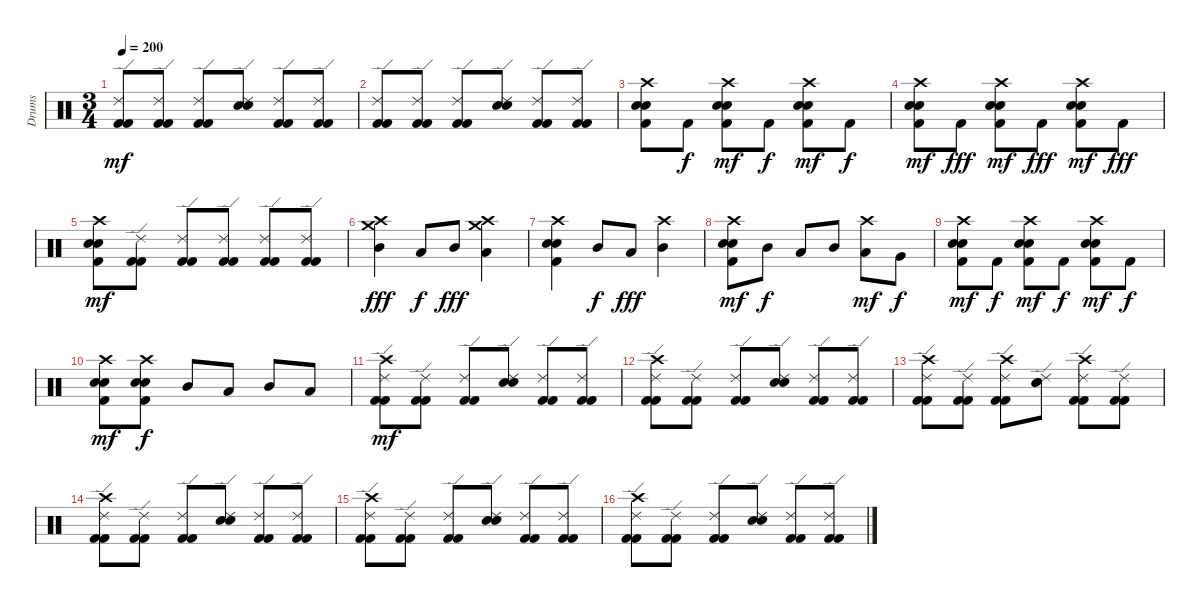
\track ("Drums" "Drums") {instrument percussion bank 41}
\staff
\articulation defaults
\ts (3 4)
\tempo 200
\clef neutral
\ks c
("Kick (hit) 2" "Kick (hit) 2" "Ride (edge) 2").8{dy mf} ("Kick (hit) 2" "Kick (hit) 2" "Ride (edge) 2").8 ("Kick (hit) 2" "Kick (hit) 2" "Ride (edge) 2").8 ("Snare (hit) 2" "Electric Snare (hit)" "Ride (edge) 2").8 ("Kick (hit) 2" "Kick (hit) 2" "Ride (edge) 2").8 ("Kick (hit) 2" "Kick (hit) 2" "Ride (edge) 2").8 |
("Kick (hit) 2" "Kick (hit) 2" "Ride (edge) 2").8 ("Kick (hit) 2" "Kick (hit) 2" "Ride (edge) 2").8 ("Kick (hit) 2" "Kick (hit) 2" "Ride (edge) 2").8 ("Snare (hit) 2" "Electric Snare (hit)" "Ride (edge) 2").8 ("Kick (hit) 2" "Kick (hit) 2" "Ride (edge) 2").8 ("Kick (hit) 2" "Kick (hit) 2" "Ride (edge) 2").8 |
("Kick (hit) 2" "Snare (hit) 2" "Electric Snare (hit)" "Crash high (hit)").8 "Kick (hit) 2".8{dy f} ("Kick (hit) 2" "Snare (hit) 2" "Electric Snare (hit)" "Crash high (hit)").8{dy mf} "Kick (hit) 2".8{dy f} ("Kick (hit) 2" "Electric Snare (hit)" "Snare (hit) 2" "Crash high (hit)").8{dy mf} "Kick (hit) 2".8{dy f} |
("Kick (hit) 2" "Electric Snare (hit)" "Snare (hit) 2" "Crash high (hit)").8{dy mf} "Kick (hit) 2".8{dy fff} ("Kick (hit) 2" "Electric Snare (hit)" "Snare (hit) 2" "Crash high (hit)").8{dy mf} "Kick (hit) 2".8{dy fff} ("Kick (hit) 2" "Electric Snare (hit)" "Snare (hit) 2" "Crash high (hit)").8{dy mf} "Kick (hit) 2".8{dy fff} |
("Kick (hit) 2" "Electric Snare (hit)" "Snare (hit) 2" "Crash high (hit)").8{dy mf} ("Kick (hit) 2" "Kick (hit) 2" "Ride (edge) 2").8 ("Kick (hit) 2" "Kick (hit) 2" "Ride (edge) 2").8 ("Kick (hit) 2" "Kick (hit) 2" "Ride (edge) 2").8 ("Kick (hit) 2" "Kick (hit) 2" "Ride (edge) 2").8 ("Kick (hit) 2" "Kick (hit) 2" "Ride (edge) 2").8 |
("Mid Tom (hit)" "Crash medium (hit)" "Crash high (hit)").4{dy fff} "Low Tom (hit)".8{dy f} "Mid Tom (hit)".8{dy fff} ("Low Tom (hit)" "Crash medium (hit)" "Crash high (hit)").4 |
("Kick (hit) 2" "Snare (hit) 2" "Electric Snare (hit)" "Crash high (hit)").4 "Mid Tom (hit)".8{dy f} "Low Tom (hit)".8{dy fff} ("Mid Tom (hit)" "Crash high (hit)").4 |
("Kick (hit) 2" "Snare (hit) 2" "Electric Snare (hit)" "Crash high (hit)").8{dy mf} "Mid Tom (hit)".8{dy f} "Low Tom (hit)".8 "Mid Tom (hit)".8 ("Low Tom (hit)" "Crash high (hit)").8{dy mf} "Very Low Tom (hit)".8{dy f} |
("Kick (hit) 2" "Snare (hit) 2" "Electric Snare (hit)" "Crash high (hit)").8{dy mf} "Kick (hit) 2".8{dy f} ("Kick (hit) 2" "Snare (hit) 2" "Electric Snare (hit)" "Crash high (hit)").8{dy mf} "Kick (hit) 2".8{dy f} ("Kick (hit) 2" "Snare (hit) 2" "Snare (hit) 2" "Crash high (hit)").8{dy mf} "Kick (hit) 2".8{dy f} |
("Kick (hit) 2" "Snare (hit) 2" "Electric Snare (hit)" "Crash high (hit)").8{dy mf} ("Kick (hit) 2" "Snare (hit) 2" "Electric Snare (hit)" "Crash high (hit)").8{dy f} "Mid Tom (hit)".8 "Low Tom (hit)".8 "Mid Tom (hit)".8 "Low Tom (hit)".8 |
("Kick (hit) 2" "Kick (hit) 2" "Ride (edge) 2" "Crash high (hit)").8{dy mf} ("Kick (hit) 2" "Kick (hit) 2" "Ride (edge) 2").8 ("Kick (hit) 2" "Kick (hit) 2" "Ride (edge) 2").8 ("Snare (hit) 2" "Electric Snare (hit)" "Ride (edge) 2").8 ("Kick (hit) 2" "Kick (hit) 2" "Ride (edge) 2").8 ("Kick (hit) 2" "Kick (hit) 2" "Ride (edge) 2").8 |
("Kick (hit) 2" "Kick (hit) 2" "Ride (edge) 2" "Crash high (hit)").8 ("Kick (hit) 2" "Kick (hit) 2" "Ride (edge) 2").8 ("Kick (hit) 2" "Kick (hit) 2" "Ride (edge) 2").8 ("Snare (hit) 2" "Electric Snare (hit)" "Ride (edge) 2").8 ("Kick (hit) 2" "Kick (hit) 2" "Ride (edge) 2").8 ("Kick (hit) 2" "Kick (hit) 2" "Ride (edge) 2").8 |
("Kick (hit) 2" "Kick (hit) 2" "Ride (edge) 2" "Crash high (hit)").8 ("Kick (hit) 2" "Kick (hit) 2" "Ride (edge) 2").8 ("Kick (hit) 2" "Kick (hit) 2" "Ride (edge) 2" "Crash high (hit)").8 ("Snare (hit) 2" "Electric Snare (hit)" "Ride (edge) 2").8 ("Kick (hit) 2" "Kick (hit) 2" "Ride (edge) 2" "Crash high (hit)").8 ("Kick (hit) 2" "Kick (hit) 2" "Ride (edge) 2").8 |
("Kick (hit) 2" "Kick (hit) 2" "Ride (edge) 2" "Crash high (hit)").8 ("Kick (hit) 2" "Kick (hit) 2" "Ride (edge) 2").8 ("Kick (hit) 2" "Kick (hit) 2" "Ride (edge) 2").8 ("Snare (hit) 2" "Electric Snare (hit)" "Ride (edge) 2").8 ("Kick (hit) 2" "Kick (hit) 2" "Ride (edge) 2").8 ("Kick (hit) 2" "Kick (hit) 2" "Ride (edge) 2").8 |
("Kick (hit) 2" "Kick (hit) 2" "Ride (edge) 2" "Crash high (hit)").8 ("Kick (hit) 2" "Kick (hit) 2" "Ride (edge) 2").8 ("Kick (hit) 2" "Kick (hit) 2" "Ride (edge) 2").8 ("Snare (hit) 2" "Electric Snare (hit)" "Ride (edge) 2").8 ("Kick (hit) 2" "Kick (hit) 2" "Ride (edge) 2").8 ("Kick (hit) 2" "Kick (hit) 2" "Ride (edge) 2").8 |
("Kick (hit) 2" "Kick (hit) 2" "Ride (edge) 2" "Crash high (hit)").8 ("Kick (hit) 2" "Kick (hit) 2" "Ride (edge) 2").8 ("Kick (hit) 2" "Kick (hit) 2" "Ride (edge) 2").8 ("Snare (hit) 2" "Electric Snare (hit)" "Ride (edge) 2").8 ("Kick (hit) 2" "Kick (hit) 2" "Ride (edge) 2").8 ("Kick (hit) 2" "Kick (hit) 2" "Ride (edge) 2").8
